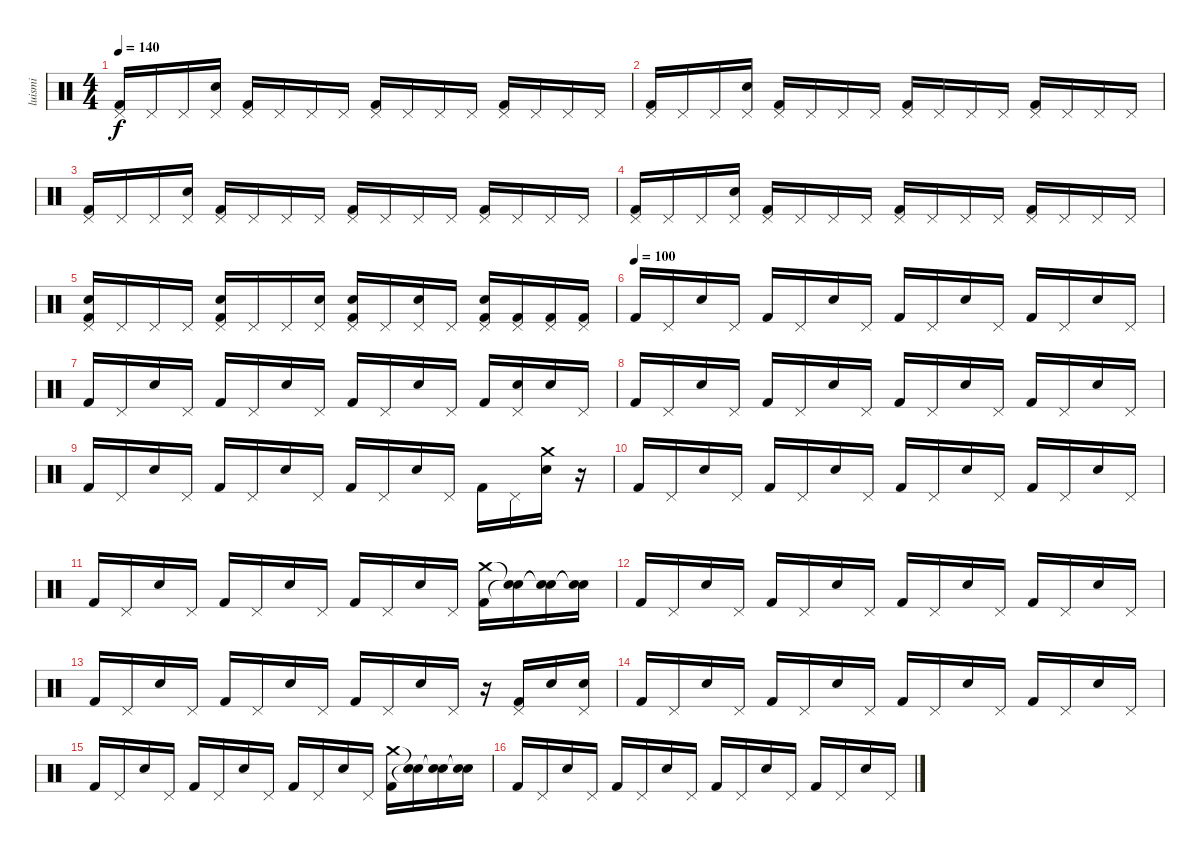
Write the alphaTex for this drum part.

\track ("luismi" "luismi") {instrument percussion}
\staff {score}
\articulation defaults
\ts (4 4)
\tempo 140
\clef neutral
\ks c
("Kick (hit) 2" "Pedal Hi-Hat (hit)").16{dy f} "Pedal Hi-Hat (hit)".16 "Pedal Hi-Hat (hit)".16 ("Electric Snare (hit)" "Pedal Hi-Hat (hit)").16 ("Kick (hit) 2" "Pedal Hi-Hat (hit)").16 "Pedal Hi-Hat (hit)".16 "Pedal Hi-Hat (hit)".16 "Pedal Hi-Hat (hit)".16 ("Kick (hit) 2" "Pedal Hi-Hat (hit)").16 "Pedal Hi-Hat (hit)".16 "Pedal Hi-Hat (hit)".16 "Pedal Hi-Hat (hit)".16 ("Kick (hit) 2" "Pedal Hi-Hat (hit)").16 "Pedal Hi-Hat (hit)".16 "Pedal Hi-Hat (hit)".16 "Pedal Hi-Hat (hit)".16 |
("Kick (hit) 2" "Pedal Hi-Hat (hit)").16 "Pedal Hi-Hat (hit)".16 "Pedal Hi-Hat (hit)".16 ("Electric Snare (hit)" "Pedal Hi-Hat (hit)").16 ("Kick (hit) 2" "Pedal Hi-Hat (hit)").16 "Pedal Hi-Hat (hit)".16 "Pedal Hi-Hat (hit)".16 "Pedal Hi-Hat (hit)".16 ("Kick (hit) 2" "Pedal Hi-Hat (hit)").16 "Pedal Hi-Hat (hit)".16 "Pedal Hi-Hat (hit)".16 "Pedal Hi-Hat (hit)".16 ("Kick (hit) 2" "Pedal Hi-Hat (hit)").16 "Pedal Hi-Hat (hit)".16 "Pedal Hi-Hat (hit)".16 "Pedal Hi-Hat (hit)".16 |
("Kick (hit) 2" "Pedal Hi-Hat (hit)").16 "Pedal Hi-Hat (hit)".16 "Pedal Hi-Hat (hit)".16 ("Electric Snare (hit)" "Pedal Hi-Hat (hit)").16 ("Kick (hit) 2" "Pedal Hi-Hat (hit)").16 "Pedal Hi-Hat (hit)".16 "Pedal Hi-Hat (hit)".16 "Pedal Hi-Hat (hit)".16 ("Kick (hit) 2" "Pedal Hi-Hat (hit)").16 "Pedal Hi-Hat (hit)".16 "Pedal Hi-Hat (hit)".16 "Pedal Hi-Hat (hit)".16 ("Kick (hit) 2" "Pedal Hi-Hat (hit)").16 "Pedal Hi-Hat (hit)".16 "Pedal Hi-Hat (hit)".16 "Pedal Hi-Hat (hit)".16 |
("Kick (hit) 2" "Pedal Hi-Hat (hit)").16 "Pedal Hi-Hat (hit)".16 "Pedal Hi-Hat (hit)".16 ("Electric Snare (hit)" "Pedal Hi-Hat (hit)").16 ("Kick (hit) 2" "Pedal Hi-Hat (hit)").16 "Pedal Hi-Hat (hit)".16 "Pedal Hi-Hat (hit)".16 "Pedal Hi-Hat (hit)".16 ("Kick (hit) 2" "Pedal Hi-Hat (hit)").16 "Pedal Hi-Hat (hit)".16 "Pedal Hi-Hat (hit)".16 "Pedal Hi-Hat (hit)".16 ("Kick (hit) 2" "Pedal Hi-Hat (hit)").16 "Pedal Hi-Hat (hit)".16 "Pedal Hi-Hat (hit)".16 "Pedal Hi-Hat (hit)".16 |
("Electric Snare (hit)" "Pedal Hi-Hat (hit)" "Kick (hit) 2").16 "Pedal Hi-Hat (hit)".16 "Pedal Hi-Hat (hit)".16 "Pedal Hi-Hat (hit)".16 ("Electric Snare (hit)" "Pedal Hi-Hat (hit)" "Kick (hit) 2").16 "Pedal Hi-Hat (hit)".16 "Pedal Hi-Hat (hit)".16 ("Electric Snare (hit)" "Pedal Hi-Hat (hit)").16 ("Electric Snare (hit)" "Pedal Hi-Hat (hit)" "Kick (hit) 2").16 "Pedal Hi-Hat (hit)".16 ("Electric Snare (hit)" "Pedal Hi-Hat (hit)").16 "Pedal Hi-Hat (hit)".16 ("Electric Snare (hit)" "Pedal Hi-Hat (hit)" "Kick (hit) 2").16 ("Pedal Hi-Hat (hit)" "Kick (hit) 2").16 ("Pedal Hi-Hat (hit)" "Kick (hit) 2").16 ("Pedal Hi-Hat (hit)" "Kick (hit) 2").16 |
\tempo (100)
"Kick (hit) 2".16 "Pedal Hi-Hat (hit)".16 "Electric Snare (hit)".16 "Pedal Hi-Hat (hit)".16 "Kick (hit) 2".16 "Pedal Hi-Hat (hit)".16 "Electric Snare (hit)".16 "Pedal Hi-Hat (hit)".16 "Kick (hit) 2".16 "Pedal Hi-Hat (hit)".16 "Electric Snare (hit)".16 "Pedal Hi-Hat (hit)".16 "Kick (hit) 2".16 "Pedal Hi-Hat (hit)".16 "Electric Snare (hit)".16 "Pedal Hi-Hat (hit)".16 |
"Kick (hit) 2".16 "Pedal Hi-Hat (hit)".16 "Electric Snare (hit)".16 "Pedal Hi-Hat (hit)".16 "Kick (hit) 2".16 "Pedal Hi-Hat (hit)".16 "Electric Snare (hit)".16 "Pedal Hi-Hat (hit)".16 "Kick (hit) 2".16 "Pedal Hi-Hat (hit)".16 "Electric Snare (hit)".16 "Pedal Hi-Hat (hit)".16 "Kick (hit) 2".16 ("Electric Snare (hit)" "Pedal Hi-Hat (hit)").16 "Electric Snare (hit)".16 "Pedal Hi-Hat (hit)".16 |
"Kick (hit) 2".16 "Pedal Hi-Hat (hit)".16 "Electric Snare (hit)".16 "Pedal Hi-Hat (hit)".16 "Kick (hit) 2".16 "Pedal Hi-Hat (hit)".16 "Electric Snare (hit)".16 "Pedal Hi-Hat (hit)".16 "Kick (hit) 2".16 "Pedal Hi-Hat (hit)".16 "Electric Snare (hit)".16 "Pedal Hi-Hat (hit)".16 "Kick (hit) 2".16 "Pedal Hi-Hat (hit)".16 "Electric Snare (hit)".16 "Pedal Hi-Hat (hit)".16 |
"Kick (hit) 2".16 "Pedal Hi-Hat (hit)".16 "Electric Snare (hit)".16 "Pedal Hi-Hat (hit)".16 "Kick (hit) 2".16 "Pedal Hi-Hat (hit)".16 "Electric Snare (hit)".16 "Pedal Hi-Hat (hit)".16 "Kick (hit) 2".16 "Pedal Hi-Hat (hit)".16 "Electric Snare (hit)".16 "Pedal Hi-Hat (hit)".16 "Kick (hit) 2".16 "Pedal Hi-Hat (hit)".16 ("Crash medium (hit)" "Electric Snare (hit)").16 r.16 |
"Kick (hit) 2".16 "Pedal Hi-Hat (hit)".16 "Electric Snare (hit)".16 "Pedal Hi-Hat (hit)".16 "Kick (hit) 2".16 "Pedal Hi-Hat (hit)".16 "Electric Snare (hit)".16 "Pedal Hi-Hat (hit)".16 "Kick (hit) 2".16 "Pedal Hi-Hat (hit)".16 "Electric Snare (hit)".16 "Pedal Hi-Hat (hit)".16 "Kick (hit) 2".16 "Pedal Hi-Hat (hit)".16 "Electric Snare (hit)".16 "Pedal Hi-Hat (hit)".16 |
"Kick (hit) 2".16 "Pedal Hi-Hat (hit)".16 "Electric Snare (hit)".16 "Pedal Hi-Hat (hit)".16 "Kick (hit) 2".16 "Pedal Hi-Hat (hit)".16 "Electric Snare (hit)".16 "Pedal Hi-Hat (hit)".16 "Kick (hit) 2".16 "Pedal Hi-Hat (hit)".16 "Electric Snare (hit)".16 "Pedal Hi-Hat (hit)".16 ("Crash medium (hit)" "Kick (hit) 2").16 ("Snare (hit)"{t} "Snare (hit)"{t}).16 ("Snare (hit)"{t} "Snare (hit)"{t}).16 ("Snare (hit)"{t} "Snare (hit)"{t}).16 |
"Kick (hit) 2".16 "Pedal Hi-Hat (hit)".16 "Electric Snare (hit)".16 "Pedal Hi-Hat (hit)".16 "Kick (hit) 2".16 "Pedal Hi-Hat (hit)".16 "Electric Snare (hit)".16 "Pedal Hi-Hat (hit)".16 "Kick (hit) 2".16 "Pedal Hi-Hat (hit)".16 "Electric Snare (hit)".16 "Pedal Hi-Hat (hit)".16 "Kick (hit) 2".16 "Pedal Hi-Hat (hit)".16 "Electric Snare (hit)".16 "Pedal Hi-Hat (hit)".16 |
"Kick (hit) 2".16 "Pedal Hi-Hat (hit)".16 "Electric Snare (hit)".16 "Pedal Hi-Hat (hit)".16 "Kick (hit) 2".16 "Pedal Hi-Hat (hit)".16 "Electric Snare (hit)".16 "Pedal Hi-Hat (hit)".16 "Kick (hit) 2".16 "Pedal Hi-Hat (hit)".16 "Electric Snare (hit)".16 "Pedal Hi-Hat (hit)".16 r.16 ("Kick (hit) 2" "Pedal Hi-Hat (hit)").16 "Electric Snare (hit)".16 ("Electric Snare (hit)" "Pedal Hi-Hat (hit)").16 |
"Kick (hit) 2".16 "Pedal Hi-Hat (hit)".16 "Electric Snare (hit)".16 "Pedal Hi-Hat (hit)".16 "Kick (hit) 2".16 "Pedal Hi-Hat (hit)".16 "Electric Snare (hit)".16 "Pedal Hi-Hat (hit)".16 "Kick (hit) 2".16 "Pedal Hi-Hat (hit)".16 "Electric Snare (hit)".16 "Pedal Hi-Hat (hit)".16 "Kick (hit) 2".16 "Pedal Hi-Hat (hit)".16 "Electric Snare (hit)".16 "Pedal Hi-Hat (hit)".16 |
"Kick (hit) 2".16 "Pedal Hi-Hat (hit)".16 "Electric Snare (hit)".16 "Pedal Hi-Hat (hit)".16 "Kick (hit) 2".16 "Pedal Hi-Hat (hit)".16 "Electric Snare (hit)".16 "Pedal Hi-Hat (hit)".16 "Kick (hit) 2".16 "Pedal Hi-Hat (hit)".16 "Electric Snare (hit)".16 "Pedal Hi-Hat (hit)".16 ("Crash medium (hit)" "Kick (hit) 2").16 ("Snare (hit)"{t} "Snare (hit)"{t}).16 ("Snare (hit)"{t} "Snare (hit)"{t}).16 ("Snare (hit)"{t} "Snare (hit)"{t}).16 |
"Kick (hit) 2".16 "Pedal Hi-Hat (hit)".16 "Electric Snare (hit)".16 "Pedal Hi-Hat (hit)".16 "Kick (hit) 2".16 "Pedal Hi-Hat (hit)".16 "Electric Snare (hit)".16 "Pedal Hi-Hat (hit)".16 "Kick (hit) 2".16 "Pedal Hi-Hat (hit)".16 "Electric Snare (hit)".16 "Pedal Hi-Hat (hit)".16 "Kick (hit) 2".16 "Pedal Hi-Hat (hit)".16 "Electric Snare (hit)".16 "Pedal Hi-Hat (hit)".16
